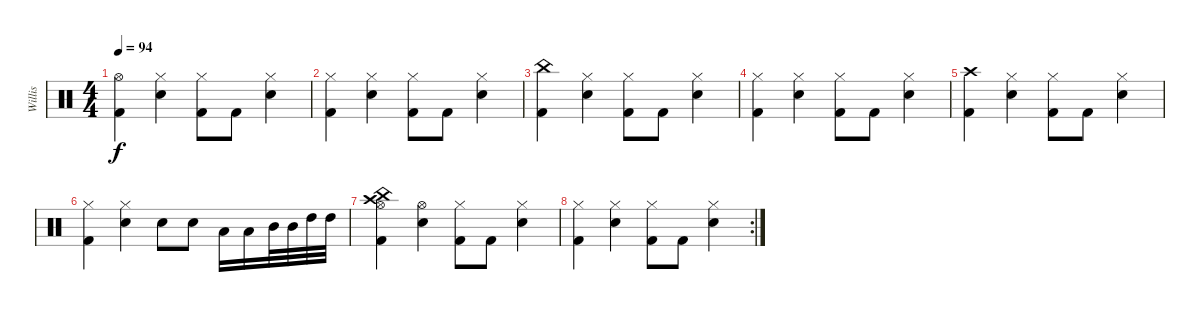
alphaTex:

\track ("Willis" "Willis") {instrument percussion}
\staff {score}
\articulation defaults
\ts (4 4)
\tempo 94
\clef neutral
\ks c
("Kick (hit) 2" "Hi-Hat (open)").4{dy f} ("Electric Snare (hit)" "Hi-Hat (closed)").4 ("Kick (hit) 2" "Hi-Hat (closed)").8 "Kick (hit) 2".8 ("Electric Snare (hit)" "Hi-Hat (closed)").4 |
("Kick (hit) 2" "Hi-Hat (closed)").4 ("Electric Snare (hit)" "Hi-Hat (closed)").4 ("Kick (hit) 2" "Hi-Hat (closed)").8 "Kick (hit) 2".8 ("Electric Snare (hit)" "Hi-Hat (closed)").4 |
("Kick (hit) 2" "China (hit)").4 ("Electric Snare (hit)" "Hi-Hat (closed)").4 ("Kick (hit) 2" "Hi-Hat (closed)").8 "Kick (hit) 2".8 ("Electric Snare (hit)" "Hi-Hat (closed)").4 |
("Kick (hit) 2" "Hi-Hat (closed)").4 ("Electric Snare (hit)" "Hi-Hat (closed)").4 ("Kick (hit) 2" "Hi-Hat (closed)").8 "Kick (hit) 2".8 ("Electric Snare (hit)" "Hi-Hat (closed)").4 |
("Kick (hit) 2" "Crash high (hit)").4 ("Electric Snare (hit)" "Hi-Hat (closed)").4 ("Kick (hit) 2" "Hi-Hat (closed)").8 "Kick (hit) 2".8 ("Electric Snare (hit)" "Hi-Hat (closed)").4 |
("Kick (hit) 2" "Hi-Hat (closed)").4 ("Electric Snare (hit)" "Hi-Hat (closed)").4 "Snare (hit) 2".8 "Snare (hit) 2".8 "Low Tom (hit)".16 "Low Tom (hit)".16 "Mid Tom (hit)".32 "Mid Tom (hit)".32 "High Tom (hit)".32 "High Tom (hit)".32 |
("Kick (hit) 2" "Crash high (hit)" "Hi-Hat (open)" "China (hit)").4 ("Electric Snare (hit)" "Hi-Hat (open)").4 ("Kick (hit) 2" "Hi-Hat (closed)").8 "Kick (hit) 2".8 ("Electric Snare (hit)" "Hi-Hat (closed)").4 |
\rc 2
("Kick (hit) 2" "Hi-Hat (closed)").4 ("Electric Snare (hit)" "Hi-Hat (closed)").4 ("Kick (hit) 2" "Hi-Hat (closed)").8 "Kick (hit) 2".8 ("Electric Snare (hit)" "Hi-Hat (closed)").4
